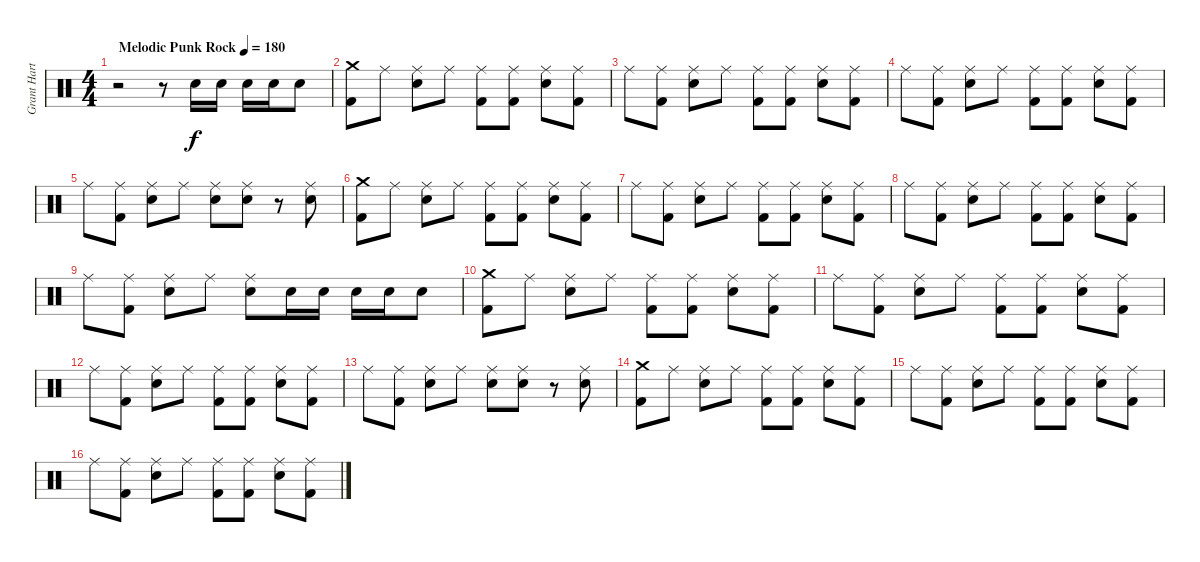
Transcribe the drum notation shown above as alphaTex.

\track ("Grant Hart - Drums" "Grant Hart") {instrument percussion}
\staff {score}
\articulation defaults
\ts (4 4)
\tempo (180 "Melodic Punk Rock")
\clef neutral
\ks c
r.2{dy f} r.8 "Electric Snare (hit)".16 "Electric Snare (hit)".16 "Electric Snare (hit)".16 "Electric Snare (hit)".16 "Electric Snare (hit)".8 |
("Crash medium (hit)" "Kick (hit) 2").8 "Ride (middle)".8 ("Ride (middle)" "Electric Snare (hit)").8 "Ride (middle)".8 ("Ride (middle)" "Kick (hit) 2").8 ("Ride (middle)" "Kick (hit) 2").8 ("Ride (middle)" "Electric Snare (hit)").8 ("Ride (middle)" "Kick (hit) 2").8 |
"Ride (middle)".8 ("Ride (middle)" "Kick (hit) 2").8 ("Ride (middle)" "Electric Snare (hit)").8 "Ride (middle)".8 ("Ride (middle)" "Kick (hit) 2").8 ("Ride (middle)" "Kick (hit) 2").8 ("Ride (middle)" "Electric Snare (hit)").8 ("Ride (middle)" "Kick (hit) 2").8 |
"Ride (middle)".8 ("Ride (middle)" "Kick (hit) 2").8 ("Ride (middle)" "Electric Snare (hit)").8 "Ride (middle)".8 ("Ride (middle)" "Kick (hit) 2").8 ("Ride (middle)" "Kick (hit) 2").8 ("Ride (middle)" "Electric Snare (hit)").8 ("Ride (middle)" "Kick (hit) 2").8 |
"Ride (middle)".8 ("Ride (middle)" "Kick (hit) 2").8 ("Ride (middle)" "Electric Snare (hit)").8 "Ride (middle)".8 ("Ride (middle)" "Electric Snare (hit)").8 ("Ride (middle)" "Electric Snare (hit)").8 r.8 ("Ride (middle)" "Electric Snare (hit)").8 |
("Crash medium (hit)" "Kick (hit) 2").8 "Ride (middle)".8 ("Ride (middle)" "Electric Snare (hit)").8 "Ride (middle)".8 ("Ride (middle)" "Kick (hit) 2").8 ("Ride (middle)" "Kick (hit) 2").8 ("Ride (middle)" "Electric Snare (hit)").8 ("Ride (middle)" "Kick (hit) 2").8 |
"Ride (middle)".8 ("Ride (middle)" "Kick (hit) 2").8 ("Ride (middle)" "Electric Snare (hit)").8 "Ride (middle)".8 ("Ride (middle)" "Kick (hit) 2").8 ("Ride (middle)" "Kick (hit) 2").8 ("Ride (middle)" "Electric Snare (hit)").8 ("Ride (middle)" "Kick (hit) 2").8 |
"Ride (middle)".8 ("Ride (middle)" "Kick (hit) 2").8 ("Ride (middle)" "Electric Snare (hit)").8 "Ride (middle)".8 ("Ride (middle)" "Kick (hit) 2").8 ("Ride (middle)" "Kick (hit) 2").8 ("Ride (middle)" "Electric Snare (hit)").8 ("Ride (middle)" "Kick (hit) 2").8 |
"Ride (middle)".8 ("Ride (middle)" "Kick (hit) 2").8 ("Ride (middle)" "Electric Snare (hit)").8 "Ride (middle)".8 ("Ride (middle)" "Electric Snare (hit)").8 "Electric Snare (hit)".16 "Electric Snare (hit)".16 "Electric Snare (hit)".16 "Electric Snare (hit)".16 "Electric Snare (hit)".8 |
("Crash medium (hit)" "Kick (hit) 2").8 "Ride (middle)".8 ("Ride (middle)" "Electric Snare (hit)").8 "Ride (middle)".8 ("Ride (middle)" "Kick (hit) 2").8 ("Ride (middle)" "Kick (hit) 2").8 ("Ride (middle)" "Electric Snare (hit)").8 ("Ride (middle)" "Kick (hit) 2").8 |
"Ride (middle)".8 ("Ride (middle)" "Kick (hit) 2").8 ("Ride (middle)" "Electric Snare (hit)").8 "Ride (middle)".8 ("Ride (middle)" "Kick (hit) 2").8 ("Ride (middle)" "Kick (hit) 2").8 ("Ride (middle)" "Electric Snare (hit)").8 ("Ride (middle)" "Kick (hit) 2").8 |
"Ride (middle)".8 ("Ride (middle)" "Kick (hit) 2").8 ("Ride (middle)" "Electric Snare (hit)").8 "Ride (middle)".8 ("Ride (middle)" "Kick (hit) 2").8 ("Ride (middle)" "Kick (hit) 2").8 ("Ride (middle)" "Electric Snare (hit)").8 ("Ride (middle)" "Kick (hit) 2").8 |
"Ride (middle)".8 ("Ride (middle)" "Kick (hit) 2").8 ("Ride (middle)" "Electric Snare (hit)").8 "Ride (middle)".8 ("Ride (middle)" "Electric Snare (hit)").8 ("Ride (middle)" "Electric Snare (hit)").8 r.8 ("Ride (middle)" "Electric Snare (hit)").8 |
("Crash medium (hit)" "Kick (hit) 2").8 "Ride (middle)".8 ("Ride (middle)" "Electric Snare (hit)").8 "Ride (middle)".8 ("Ride (middle)" "Kick (hit) 2").8 ("Ride (middle)" "Kick (hit) 2").8 ("Ride (middle)" "Electric Snare (hit)").8 ("Ride (middle)" "Kick (hit) 2").8 |
"Ride (middle)".8 ("Ride (middle)" "Kick (hit) 2").8 ("Ride (middle)" "Electric Snare (hit)").8 "Ride (middle)".8 ("Ride (middle)" "Kick (hit) 2").8 ("Ride (middle)" "Kick (hit) 2").8 ("Ride (middle)" "Electric Snare (hit)").8 ("Ride (middle)" "Kick (hit) 2").8 |
"Ride (middle)".8 ("Ride (middle)" "Kick (hit) 2").8 ("Ride (middle)" "Electric Snare (hit)").8 "Ride (middle)".8 ("Ride (middle)" "Kick (hit) 2").8 ("Ride (middle)" "Kick (hit) 2").8 ("Ride (middle)" "Electric Snare (hit)").8 ("Ride (middle)" "Kick (hit) 2").8
